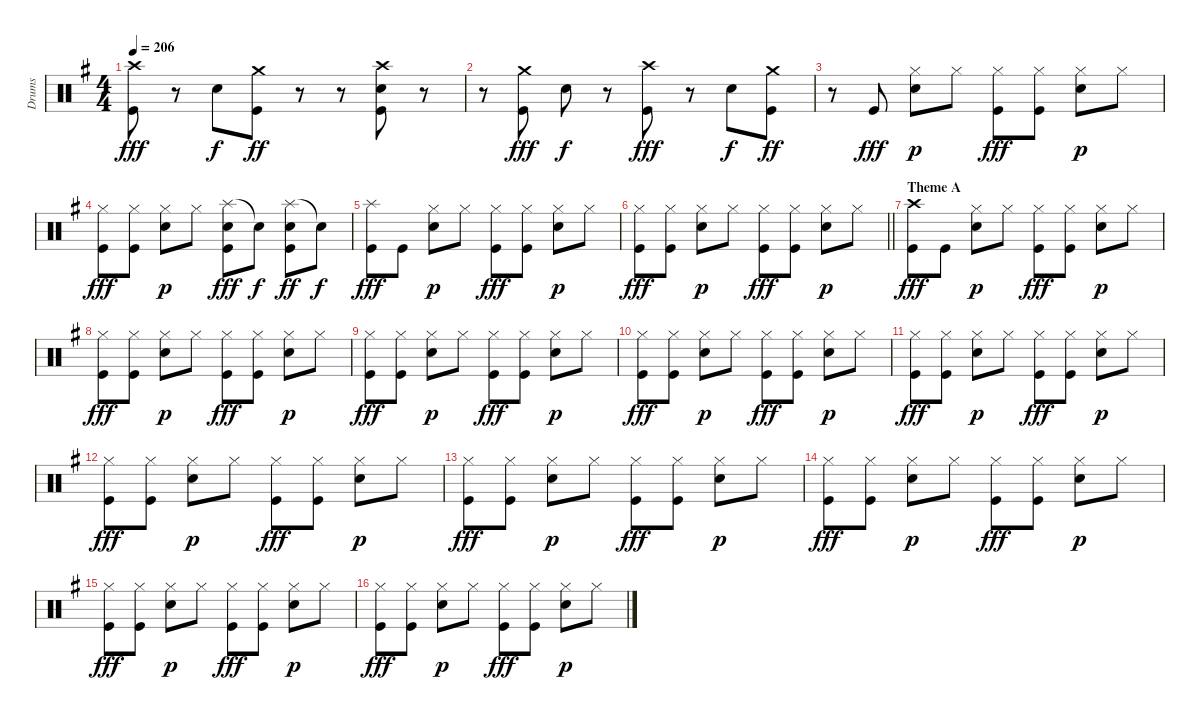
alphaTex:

\track ("Drums" "Drums") {instrument percussion}
\staff {score}
\articulation defaults
\ts (4 4)
\tempo 206
\clef neutral
\ks g
("Crash high (hit)" "Kick (hit)").8{dy fff} r.8 "Snare (hit) 2".8{dy f} ("Crash medium (hit)" "Kick (hit)").8{dy ff} r.8 r.8 ("Crash high (hit)" "Snare (hit) 2" "Kick (hit)").8 r.8 |
r.8 ("Crash medium (hit)" "Kick (hit)").8{dy fff} "Snare (hit) 2".8{dy f} r.8 ("Crash high (hit)" "Kick (hit)").8{dy fff} r.8 "Snare (hit) 2".8{dy f} ("Crash medium (hit)" "Kick (hit)").8{dy ff} |
r.8 "Kick (hit)".8{dy fff} ("Hi-Hat (closed)" "Snare (hit) 2").8{dy p} "Hi-Hat (closed)".8 ("Hi-Hat (closed)" "Kick (hit)").8{dy fff} ("Hi-Hat (closed)" "Kick (hit)").8 ("Hi-Hat (closed)" "Snare (hit) 2").8{dy p} "Hi-Hat (closed)".8 |
("Hi-Hat (closed)" "Kick (hit)").8{dy fff} ("Hi-Hat (closed)" "Kick (hit)").8 ("Hi-Hat (closed)" "Snare (hit) 2").8{dy p} "Hi-Hat (closed)".8 ("Splash (hit)" "Snare (hit) 2" "Kick (hit)").8{dy fff} "Snare (hit)"{t}.8{dy f} ("Splash (hit)" "Snare (hit) 2" "Kick (hit)").8{dy ff} "Snare (hit)"{t}.8{dy f} |
("Splash (hit)" "Kick (hit)").8{dy fff} "Kick (hit)".8 ("Hi-Hat (closed)" "Snare (hit) 2").8{dy p} "Hi-Hat (closed)".8 ("Hi-Hat (closed)" "Kick (hit)").8{dy fff} ("Hi-Hat (closed)" "Kick (hit)").8 ("Hi-Hat (closed)" "Snare (hit) 2").8{dy p} "Hi-Hat (closed)".8 |
\barLineRight lightlight
("Hi-Hat (closed)" "Kick (hit)").8{dy fff} ("Hi-Hat (closed)" "Kick (hit)").8 ("Hi-Hat (closed)" "Snare (hit) 2").8{dy p} "Hi-Hat (closed)".8 ("Hi-Hat (closed)" "Kick (hit)").8{dy fff} ("Hi-Hat (closed)" "Kick (hit)").8 ("Hi-Hat (closed)" "Snare (hit) 2").8{dy p} "Hi-Hat (closed)".8 |
\section ("" "Theme A")
("Crash high (hit)" "Kick (hit)").8{dy fff} "Kick (hit)".8 ("Hi-Hat (closed)" "Snare (hit) 2").8{dy p} "Hi-Hat (closed)".8 ("Hi-Hat (closed)" "Kick (hit)").8{dy fff} ("Hi-Hat (closed)" "Kick (hit)").8 ("Hi-Hat (closed)" "Snare (hit) 2").8{dy p} "Hi-Hat (closed)".8 |
("Hi-Hat (closed)" "Kick (hit)").8{dy fff} ("Hi-Hat (closed)" "Kick (hit)").8 ("Hi-Hat (closed)" "Snare (hit) 2").8{dy p} "Hi-Hat (closed)".8 ("Hi-Hat (closed)" "Kick (hit)").8{dy fff} ("Hi-Hat (closed)" "Kick (hit)").8 ("Hi-Hat (closed)" "Snare (hit) 2").8{dy p} "Hi-Hat (closed)".8 |
("Hi-Hat (closed)" "Kick (hit)").8{dy fff} ("Hi-Hat (closed)" "Kick (hit)").8 ("Hi-Hat (closed)" "Snare (hit) 2").8{dy p} "Hi-Hat (closed)".8 ("Hi-Hat (closed)" "Kick (hit)").8{dy fff} ("Hi-Hat (closed)" "Kick (hit)").8 ("Hi-Hat (closed)" "Snare (hit) 2").8{dy p} "Hi-Hat (closed)".8 |
("Hi-Hat (closed)" "Kick (hit)").8{dy fff} ("Hi-Hat (closed)" "Kick (hit)").8 ("Hi-Hat (closed)" "Snare (hit) 2").8{dy p} "Hi-Hat (closed)".8 ("Hi-Hat (closed)" "Kick (hit)").8{dy fff} ("Hi-Hat (closed)" "Kick (hit)").8 ("Hi-Hat (closed)" "Snare (hit) 2").8{dy p} "Hi-Hat (closed)".8 |
("Hi-Hat (closed)" "Kick (hit)").8{dy fff} ("Hi-Hat (closed)" "Kick (hit)").8 ("Hi-Hat (closed)" "Snare (hit) 2").8{dy p} "Hi-Hat (closed)".8 ("Hi-Hat (closed)" "Kick (hit)").8{dy fff} ("Hi-Hat (closed)" "Kick (hit)").8 ("Hi-Hat (closed)" "Snare (hit) 2").8{dy p} "Hi-Hat (closed)".8 |
("Hi-Hat (closed)" "Kick (hit)").8{dy fff} ("Hi-Hat (closed)" "Kick (hit)").8 ("Hi-Hat (closed)" "Snare (hit) 2").8{dy p} "Hi-Hat (closed)".8 ("Hi-Hat (closed)" "Kick (hit)").8{dy fff} ("Hi-Hat (closed)" "Kick (hit)").8 ("Hi-Hat (closed)" "Snare (hit) 2").8{dy p} "Hi-Hat (closed)".8 |
("Hi-Hat (closed)" "Kick (hit)").8{dy fff} ("Hi-Hat (closed)" "Kick (hit)").8 ("Hi-Hat (closed)" "Snare (hit) 2").8{dy p} "Hi-Hat (closed)".8 ("Hi-Hat (closed)" "Kick (hit)").8{dy fff} ("Hi-Hat (closed)" "Kick (hit)").8 ("Hi-Hat (closed)" "Snare (hit) 2").8{dy p} "Hi-Hat (closed)".8 |
("Hi-Hat (closed)" "Kick (hit)").8{dy fff} ("Hi-Hat (closed)" "Kick (hit)").8 ("Hi-Hat (closed)" "Snare (hit) 2").8{dy p} "Hi-Hat (closed)".8 ("Hi-Hat (closed)" "Kick (hit)").8{dy fff} ("Hi-Hat (closed)" "Kick (hit)").8 ("Hi-Hat (closed)" "Snare (hit) 2").8{dy p} "Hi-Hat (closed)".8 |
("Hi-Hat (closed)" "Kick (hit)").8{dy fff} ("Hi-Hat (closed)" "Kick (hit)").8 ("Hi-Hat (closed)" "Snare (hit) 2").8{dy p} "Hi-Hat (closed)".8 ("Hi-Hat (closed)" "Kick (hit)").8{dy fff} ("Hi-Hat (closed)" "Kick (hit)").8 ("Hi-Hat (closed)" "Snare (hit) 2").8{dy p} "Hi-Hat (closed)".8 |
("Hi-Hat (closed)" "Kick (hit)").8{dy fff} ("Hi-Hat (closed)" "Kick (hit)").8 ("Hi-Hat (closed)" "Snare (hit) 2").8{dy p} "Hi-Hat (closed)".8 ("Hi-Hat (closed)" "Kick (hit)").8{dy fff} ("Hi-Hat (closed)" "Kick (hit)").8 ("Hi-Hat (closed)" "Snare (hit) 2").8{dy p} "Hi-Hat (closed)".8
